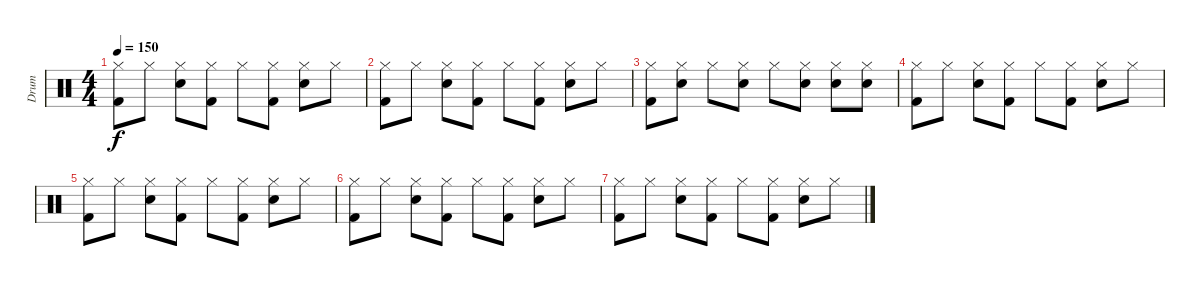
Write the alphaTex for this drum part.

\track ("Drum" "Drum") {instrument percussion}
\staff {score}
\articulation defaults
\ts (4 4)
\tempo 150
\clef neutral
\ks c
("Hi-Hat (closed)" "Kick (hit) 2").8{dy f} "Hi-Hat (closed)".8 ("Hi-Hat (closed)" "Snare (hit) 2").8 ("Hi-Hat (closed)" "Kick (hit) 2").8 "Hi-Hat (closed)".8 ("Kick (hit) 2" "Hi-Hat (closed)").8 ("Hi-Hat (closed)" "Snare (hit) 2").8 "Hi-Hat (closed)".8 |
("Hi-Hat (closed)" "Kick (hit) 2").8 "Hi-Hat (closed)".8 ("Hi-Hat (closed)" "Snare (hit) 2").8 ("Hi-Hat (closed)" "Kick (hit) 2").8 "Hi-Hat (closed)".8 ("Hi-Hat (closed)" "Kick (hit) 2").8 ("Hi-Hat (closed)" "Snare (hit) 2").8 "Hi-Hat (closed)".8 |
("Hi-Hat (closed)" "Kick (hit) 2").8 ("Hi-Hat (closed)" "Snare (hit) 2").8 "Hi-Hat (closed)".8 ("Hi-Hat (closed)" "Snare (hit) 2").8 "Hi-Hat (closed)".8 ("Hi-Hat (closed)" "Snare (hit) 2").8 ("Hi-Hat (closed)" "Snare (hit) 2").8 ("Hi-Hat (closed)" "Snare (hit) 2").8 |
("Hi-Hat (closed)" "Kick (hit) 2").8 "Hi-Hat (closed)".8 ("Hi-Hat (closed)" "Snare (hit) 2").8 ("Hi-Hat (closed)" "Kick (hit) 2").8 "Hi-Hat (closed)".8 ("Hi-Hat (closed)" "Kick (hit) 2").8 ("Hi-Hat (closed)" "Snare (hit) 2").8 "Hi-Hat (closed)".8 |
("Hi-Hat (closed)" "Kick (hit) 2").8 "Hi-Hat (closed)".8 ("Snare (hit) 2" "Hi-Hat (closed)").8 ("Hi-Hat (closed)" "Kick (hit) 2").8 "Hi-Hat (closed)".8 ("Hi-Hat (closed)" "Kick (hit) 2").8 ("Hi-Hat (closed)" "Snare (hit) 2").8 "Hi-Hat (closed)".8 |
("Hi-Hat (closed)" "Kick (hit) 2").8 "Hi-Hat (closed)".8 ("Snare (hit) 2" "Hi-Hat (closed)").8 ("Hi-Hat (closed)" "Kick (hit) 2").8 "Hi-Hat (closed)".8 ("Hi-Hat (closed)" "Kick (hit) 2").8 ("Hi-Hat (closed)" "Snare (hit) 2").8 "Hi-Hat (closed)".8 |
("Hi-Hat (closed)" "Kick (hit) 2").8 "Hi-Hat (closed)".8 ("Hi-Hat (closed)" "Snare (hit) 2").8 ("Hi-Hat (closed)" "Kick (hit) 2").8 "Hi-Hat (closed)".8 ("Hi-Hat (closed)" "Kick (hit) 2").8 ("Hi-Hat (closed)" "Snare (hit) 2").8 "Hi-Hat (closed)".8
